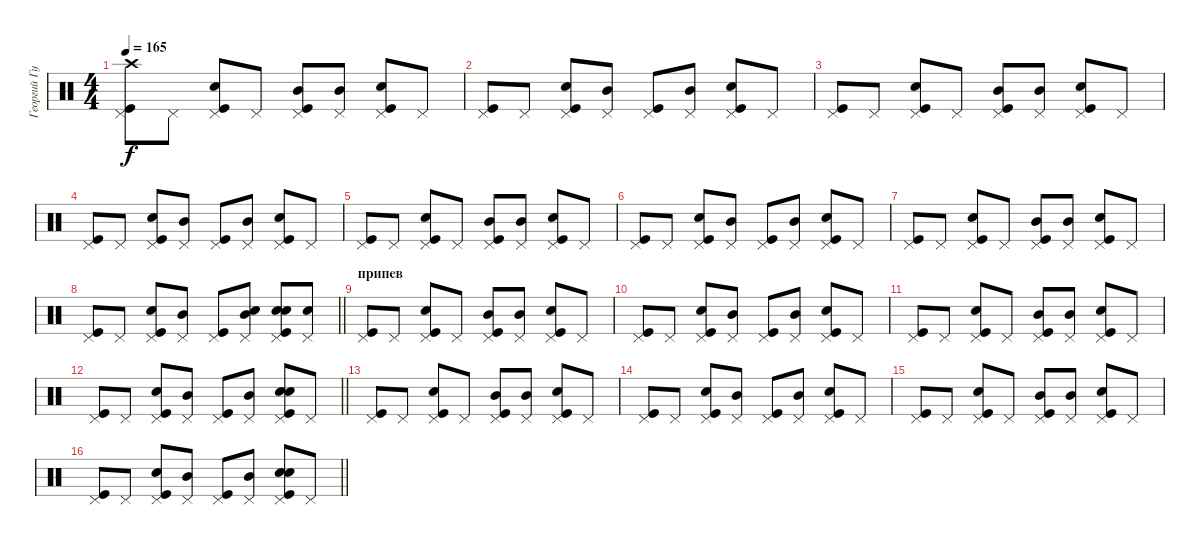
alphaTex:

\track ("Георгий Гурьянов" "Георгий Гу") {instrument percussion}
\staff {score}
\articulation defaults
\ts (4 4)
\tempo 165
\clef neutral
\ks c
("Pedal Hi-Hat (hit)" "Kick (hit)" "Crash high (hit)").8{dy f} "Pedal Hi-Hat (hit)".8 ("Pedal Hi-Hat (hit)" "Kick (hit)" "Snare (hit) 2").8 "Pedal Hi-Hat (hit)".8 ("Pedal Hi-Hat (hit)" "Kick (hit)" "Mid Tom (hit)").8 ("Pedal Hi-Hat (hit)" "Mid Tom (hit)").8 ("Pedal Hi-Hat (hit)" "Kick (hit)" "Snare (hit) 2").8 "Pedal Hi-Hat (hit)".8 |
("Pedal Hi-Hat (hit)" "Kick (hit)").8 "Pedal Hi-Hat (hit)".8 ("Pedal Hi-Hat (hit)" "Kick (hit)" "Snare (hit) 2").8 ("Pedal Hi-Hat (hit)" "Mid Tom (hit)").8 ("Pedal Hi-Hat (hit)" "Kick (hit)").8 ("Pedal Hi-Hat (hit)" "Mid Tom (hit)").8 ("Pedal Hi-Hat (hit)" "Kick (hit)" "Snare (hit) 2").8 "Pedal Hi-Hat (hit)".8 |
("Pedal Hi-Hat (hit)" "Kick (hit)").8 "Pedal Hi-Hat (hit)".8 ("Pedal Hi-Hat (hit)" "Kick (hit)" "Snare (hit) 2").8 "Pedal Hi-Hat (hit)".8 ("Pedal Hi-Hat (hit)" "Kick (hit)" "Mid Tom (hit)").8 ("Pedal Hi-Hat (hit)" "Mid Tom (hit)").8 ("Pedal Hi-Hat (hit)" "Kick (hit)" "Snare (hit) 2").8 "Pedal Hi-Hat (hit)".8 |
("Pedal Hi-Hat (hit)" "Kick (hit)").8 "Pedal Hi-Hat (hit)".8 ("Pedal Hi-Hat (hit)" "Kick (hit)" "Snare (hit) 2").8 ("Pedal Hi-Hat (hit)" "Mid Tom (hit)").8 ("Pedal Hi-Hat (hit)" "Kick (hit)").8 ("Pedal Hi-Hat (hit)" "Mid Tom (hit)").8 ("Pedal Hi-Hat (hit)" "Kick (hit)" "Snare (hit) 2").8 "Pedal Hi-Hat (hit)".8 |
("Pedal Hi-Hat (hit)" "Kick (hit)").8 "Pedal Hi-Hat (hit)".8 ("Pedal Hi-Hat (hit)" "Kick (hit)" "Snare (hit) 2").8 "Pedal Hi-Hat (hit)".8 ("Pedal Hi-Hat (hit)" "Kick (hit)" "Mid Tom (hit)").8 ("Pedal Hi-Hat (hit)" "Mid Tom (hit)").8 ("Pedal Hi-Hat (hit)" "Kick (hit)" "Snare (hit) 2").8 "Pedal Hi-Hat (hit)".8 |
("Pedal Hi-Hat (hit)" "Kick (hit)").8 "Pedal Hi-Hat (hit)".8 ("Pedal Hi-Hat (hit)" "Kick (hit)" "Snare (hit) 2").8 ("Pedal Hi-Hat (hit)" "Mid Tom (hit)").8 ("Pedal Hi-Hat (hit)" "Kick (hit)").8 ("Pedal Hi-Hat (hit)" "Mid Tom (hit)").8 ("Pedal Hi-Hat (hit)" "Kick (hit)" "Snare (hit) 2").8 "Pedal Hi-Hat (hit)".8 |
("Pedal Hi-Hat (hit)" "Kick (hit)").8 "Pedal Hi-Hat (hit)".8 ("Pedal Hi-Hat (hit)" "Kick (hit)" "Snare (hit) 2").8 "Pedal Hi-Hat (hit)".8 ("Pedal Hi-Hat (hit)" "Kick (hit)" "Mid Tom (hit)").8 ("Pedal Hi-Hat (hit)" "Mid Tom (hit)").8 ("Pedal Hi-Hat (hit)" "Kick (hit)" "Snare (hit) 2").8 "Pedal Hi-Hat (hit)".8 |
\barLineRight lightlight
("Pedal Hi-Hat (hit)" "Kick (hit)").8 "Pedal Hi-Hat (hit)".8 ("Pedal Hi-Hat (hit)" "Kick (hit)" "Snare (hit) 2").8 ("Pedal Hi-Hat (hit)" "Mid Tom (hit)").8 ("Pedal Hi-Hat (hit)" "Kick (hit)").8 ("Pedal Hi-Hat (hit)" "Mid Tom (hit)" "Snare (hit) 2").8 ("Pedal Hi-Hat (hit)" "Kick (hit)" "Snare (hit) 2" "Snare (hit) 2").8 ("Pedal Hi-Hat (hit)" "Snare (hit) 2").8 |
\section ("" "припев")
("Pedal Hi-Hat (hit)" "Kick (hit)").8 "Pedal Hi-Hat (hit)".8 ("Pedal Hi-Hat (hit)" "Kick (hit)" "Snare (hit) 2").8 "Pedal Hi-Hat (hit)".8 ("Pedal Hi-Hat (hit)" "Kick (hit)" "Mid Tom (hit)").8 ("Pedal Hi-Hat (hit)" "Mid Tom (hit)").8 ("Pedal Hi-Hat (hit)" "Kick (hit)" "Snare (hit) 2").8 "Pedal Hi-Hat (hit)".8 |
("Pedal Hi-Hat (hit)" "Kick (hit)").8 "Pedal Hi-Hat (hit)".8 ("Pedal Hi-Hat (hit)" "Kick (hit)" "Snare (hit) 2").8 ("Pedal Hi-Hat (hit)" "Mid Tom (hit)").8 ("Pedal Hi-Hat (hit)" "Kick (hit)").8 ("Pedal Hi-Hat (hit)" "Mid Tom (hit)").8 ("Pedal Hi-Hat (hit)" "Kick (hit)" "Snare (hit) 2").8 "Pedal Hi-Hat (hit)".8 |
("Pedal Hi-Hat (hit)" "Kick (hit)").8 "Pedal Hi-Hat (hit)".8 ("Pedal Hi-Hat (hit)" "Kick (hit)" "Snare (hit) 2").8 "Pedal Hi-Hat (hit)".8 ("Pedal Hi-Hat (hit)" "Kick (hit)" "Mid Tom (hit)").8 ("Pedal Hi-Hat (hit)" "Mid Tom (hit)").8 ("Pedal Hi-Hat (hit)" "Kick (hit)" "Snare (hit) 2").8 "Pedal Hi-Hat (hit)".8 |
\barLineRight lightlight
("Pedal Hi-Hat (hit)" "Kick (hit)").8 "Pedal Hi-Hat (hit)".8 ("Pedal Hi-Hat (hit)" "Kick (hit)" "Snare (hit) 2").8 ("Pedal Hi-Hat (hit)" "Mid Tom (hit)").8 ("Pedal Hi-Hat (hit)" "Kick (hit)").8 ("Pedal Hi-Hat (hit)" "Mid Tom (hit)").8 ("Pedal Hi-Hat (hit)" "Kick (hit)" "Snare (hit) 2" "Snare (hit) 2").8 "Pedal Hi-Hat (hit)".8 |
("Pedal Hi-Hat (hit)" "Kick (hit)").8 "Pedal Hi-Hat (hit)".8 ("Pedal Hi-Hat (hit)" "Kick (hit)" "Snare (hit) 2").8 "Pedal Hi-Hat (hit)".8 ("Pedal Hi-Hat (hit)" "Kick (hit)" "Mid Tom (hit)").8 ("Pedal Hi-Hat (hit)" "Mid Tom (hit)").8 ("Pedal Hi-Hat (hit)" "Kick (hit)" "Snare (hit) 2").8 "Pedal Hi-Hat (hit)".8 |
("Pedal Hi-Hat (hit)" "Kick (hit)").8 "Pedal Hi-Hat (hit)".8 ("Pedal Hi-Hat (hit)" "Kick (hit)" "Snare (hit) 2").8 ("Pedal Hi-Hat (hit)" "Mid Tom (hit)").8 ("Pedal Hi-Hat (hit)" "Kick (hit)").8 ("Pedal Hi-Hat (hit)" "Mid Tom (hit)").8 ("Pedal Hi-Hat (hit)" "Kick (hit)" "Snare (hit) 2").8 "Pedal Hi-Hat (hit)".8 |
("Pedal Hi-Hat (hit)" "Kick (hit)").8 "Pedal Hi-Hat (hit)".8 ("Pedal Hi-Hat (hit)" "Kick (hit)" "Snare (hit) 2").8 "Pedal Hi-Hat (hit)".8 ("Pedal Hi-Hat (hit)" "Kick (hit)" "Mid Tom (hit)").8 ("Pedal Hi-Hat (hit)" "Mid Tom (hit)").8 ("Pedal Hi-Hat (hit)" "Kick (hit)" "Snare (hit) 2").8 "Pedal Hi-Hat (hit)".8 |
\barLineRight lightlight
("Pedal Hi-Hat (hit)" "Kick (hit)").8 "Pedal Hi-Hat (hit)".8 ("Pedal Hi-Hat (hit)" "Kick (hit)" "Snare (hit) 2").8 ("Pedal Hi-Hat (hit)" "Mid Tom (hit)").8 ("Pedal Hi-Hat (hit)" "Kick (hit)").8 ("Pedal Hi-Hat (hit)" "Mid Tom (hit)").8 ("Pedal Hi-Hat (hit)" "Kick (hit)" "Snare (hit) 2" "Snare (hit) 2").8 "Pedal Hi-Hat (hit)".8
